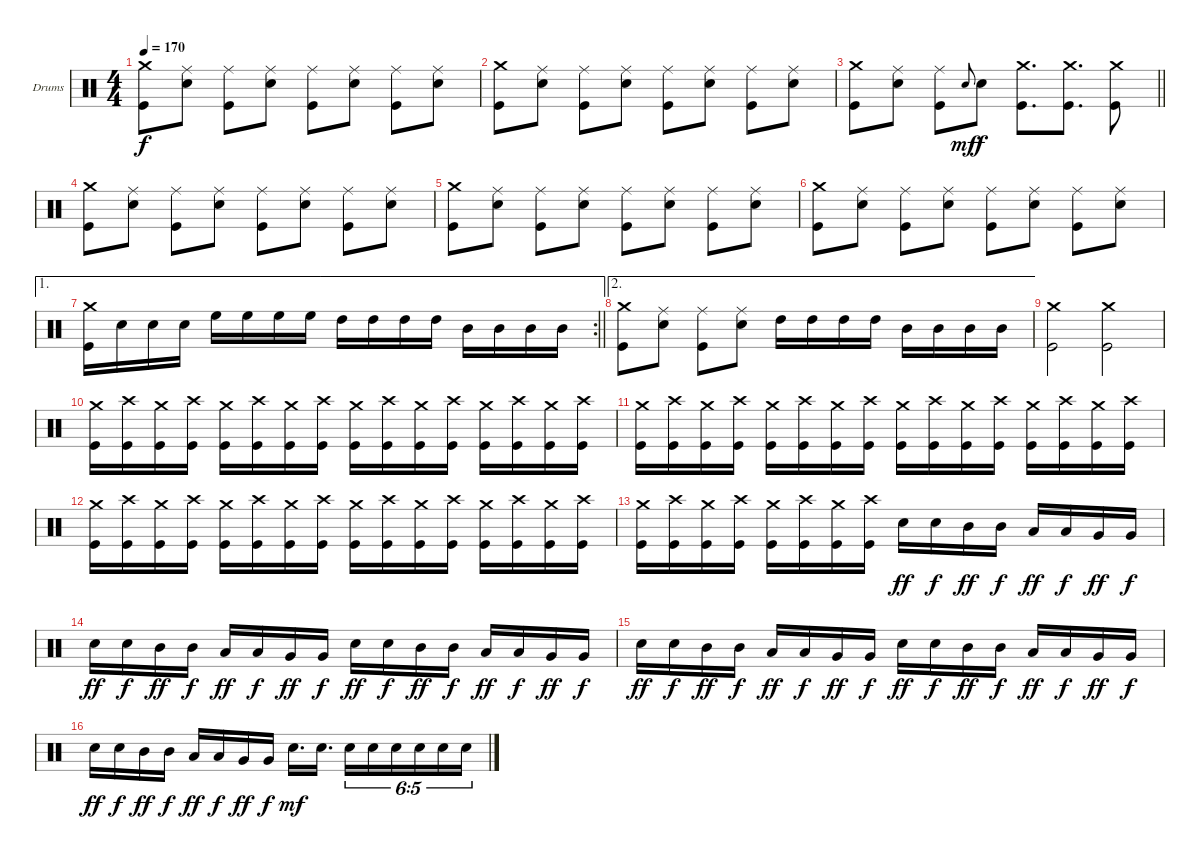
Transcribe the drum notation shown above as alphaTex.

\bracketExtendMode groupsimilarinstruments
\firstSystemTrackNameOrientation horizontal
\otherSystemsTrackNameOrientation horizontal
\track ("Drums" "Drums") {instrument percussion}
\staff {score}
\articulation defaults
\ts (4 4)
\tempo 170
\clef neutral
\ks c
("Crash medium (hit)" "Kick (hit)").8{dy f} ("Ride (middle)" "Snare (hit) 2").8 ("Ride (middle)" "Kick (hit)").8 ("Ride (middle)" "Snare (hit) 2").8 ("Ride (middle)" "Kick (hit)").8 ("Ride (middle)" "Snare (hit) 2").8 ("Ride (middle)" "Kick (hit)").8 ("Ride (middle)" "Snare (hit) 2").8 |
("Crash medium (hit)" "Kick (hit)").8 ("Ride (middle)" "Snare (hit) 2").8 ("Ride (middle)" "Kick (hit)").8 ("Ride (middle)" "Snare (hit) 2").8 ("Ride (middle)" "Kick (hit)").8 ("Ride (middle)" "Snare (hit) 2").8 ("Ride (middle)" "Kick (hit)").8 ("Ride (middle)" "Snare (hit) 2").8 |
\barLineRight lightlight
("Crash medium (hit)" "Kick (hit)").8 ("Ride (middle)" "Snare (hit) 2").8 ("Ride (middle)" "Kick (hit)").8 "Snare (hit) 2".8{gr onbeat dy mf} "Snare (hit) 2".8{dy f} ("Crash medium (hit)" "Kick (hit)").8{d} ("Crash medium (hit)" "Kick (hit)").8{d} ("Crash medium (hit)" "Kick (hit)").8 |
("Crash medium (hit)" "Kick (hit)").8 ("Ride (middle)" "Snare (hit) 2").8 ("Ride (middle)" "Kick (hit)").8 ("Ride (middle)" "Snare (hit) 2").8 ("Ride (middle)" "Kick (hit)").8 ("Ride (middle)" "Snare (hit) 2").8 ("Ride (middle)" "Kick (hit)").8 ("Ride (middle)" "Snare (hit) 2").8 |
("Crash medium (hit)" "Kick (hit)").8 ("Ride (middle)" "Snare (hit) 2").8 ("Ride (middle)" "Kick (hit)").8 ("Ride (middle)" "Snare (hit) 2").8 ("Ride (middle)" "Kick (hit)").8 ("Ride (middle)" "Snare (hit) 2").8 ("Ride (middle)" "Kick (hit)").8 ("Ride (middle)" "Snare (hit) 2").8 |
("Crash medium (hit)" "Kick (hit)").8 ("Ride (middle)" "Snare (hit) 2").8 ("Ride (middle)" "Kick (hit)").8 ("Ride (middle)" "Snare (hit) 2").8 ("Ride (middle)" "Kick (hit)").8 ("Ride (middle)" "Snare (hit) 2").8 ("Ride (middle)" "Kick (hit)").8 ("Ride (middle)" "Snare (hit) 2").8 |
\ae 1
\rc 2
\barLineRight lightlight
("Crash medium (hit)" "Kick (hit)").16 "Snare (hit) 2".16 "Snare (hit) 2".16 "Snare (hit) 2".16 "High Floor Tom (hit)".16 "High Floor Tom (hit)".16 "High Floor Tom (hit)".16 "High Floor Tom (hit)".16 "High Tom (hit)".16 "High Tom (hit)".16 "High Tom (hit)".16 "High Tom (hit)".16 "Mid Tom (hit)".16 "Mid Tom (hit)".16 "Mid Tom (hit)".16 "Mid Tom (hit)".16 |
\ae 2
("Crash medium (hit)" "Kick (hit)").8 ("Ride (middle)" "Snare (hit) 2").8 ("Ride (middle)" "Kick (hit)").8 ("Ride (middle)" "Snare (hit) 2").8 "High Tom (hit)".16 "High Tom (hit)".16 "High Tom (hit)".16 "High Tom (hit)".16 "Mid Tom (hit)".16 "Mid Tom (hit)".16 "Mid Tom (hit)".16 "Mid Tom (hit)".16 |
("Crash medium (hit)" "Kick (hit)").2 ("Crash medium (hit)" "Kick (hit)").2 |
("Kick (hit)" "Crash medium (hit)").16 ("Kick (hit)" "Crash high (hit)").16 ("Kick (hit)" "Crash medium (hit)").16 ("Kick (hit)" "Crash high (hit)").16 ("Kick (hit)" "Crash medium (hit)").16 ("Kick (hit)" "Crash high (hit)").16 ("Kick (hit)" "Crash medium (hit)").16 ("Kick (hit)" "Crash high (hit)").16 ("Kick (hit)" "Crash medium (hit)").16 ("Kick (hit)" "Crash high (hit)").16 ("Kick (hit)" "Crash medium (hit)").16 ("Kick (hit)" "Crash high (hit)").16 ("Kick (hit)" "Crash medium (hit)").16 ("Kick (hit)" "Crash high (hit)").16 ("Kick (hit)" "Crash medium (hit)").16 ("Kick (hit)" "Crash high (hit)").16 |
("Kick (hit)" "Crash medium (hit)").16 ("Kick (hit)" "Crash high (hit)").16 ("Kick (hit)" "Crash medium (hit)").16 ("Kick (hit)" "Crash high (hit)").16 ("Kick (hit)" "Crash medium (hit)").16 ("Kick (hit)" "Crash high (hit)").16 ("Kick (hit)" "Crash medium (hit)").16 ("Kick (hit)" "Crash high (hit)").16 ("Kick (hit)" "Crash medium (hit)").16 ("Kick (hit)" "Crash high (hit)").16 ("Kick (hit)" "Crash medium (hit)").16 ("Kick (hit)" "Crash high (hit)").16 ("Kick (hit)" "Crash medium (hit)").16 ("Kick (hit)" "Crash high (hit)").16 ("Kick (hit)" "Crash medium (hit)").16 ("Kick (hit)" "Crash high (hit)").16 |
("Kick (hit)" "Crash medium (hit)").16 ("Kick (hit)" "Crash high (hit)").16 ("Kick (hit)" "Crash medium (hit)").16 ("Kick (hit)" "Crash high (hit)").16 ("Kick (hit)" "Crash medium (hit)").16 ("Kick (hit)" "Crash high (hit)").16 ("Kick (hit)" "Crash medium (hit)").16 ("Kick (hit)" "Crash high (hit)").16 ("Kick (hit)" "Crash medium (hit)").16 ("Kick (hit)" "Crash high (hit)").16 ("Kick (hit)" "Crash medium (hit)").16 ("Kick (hit)" "Crash high (hit)").16 ("Kick (hit)" "Crash medium (hit)").16 ("Kick (hit)" "Crash high (hit)").16 ("Kick (hit)" "Crash medium (hit)").16 ("Kick (hit)" "Crash high (hit)").16 |
("Kick (hit)" "Crash medium (hit)").16 ("Kick (hit)" "Crash high (hit)").16 ("Kick (hit)" "Crash medium (hit)").16 ("Kick (hit)" "Crash high (hit)").16 ("Kick (hit)" "Crash medium (hit)").16 ("Kick (hit)" "Crash high (hit)").16 ("Kick (hit)" "Crash medium (hit)").16 ("Kick (hit)" "Crash high (hit)").16 "Snare (hit) 2".16{dy ff} "Snare (hit) 2".16{dy f} "Mid Tom (hit)".16{dy ff} "Mid Tom (hit)".16{dy f} "Low Tom (hit)".16{dy ff} "Low Tom (hit)".16{dy f} "Very Low Tom (hit)".16{dy ff} "Very Low Tom (hit)".16{dy f} |
"Snare (hit) 2".16{dy ff} "Snare (hit) 2".16{dy f} "Mid Tom (hit)".16{dy ff} "Mid Tom (hit)".16{dy f} "Low Tom (hit)".16{dy ff} "Low Tom (hit)".16{dy f} "Very Low Tom (hit)".16{dy ff} "Very Low Tom (hit)".16{dy f} "Snare (hit) 2".16{dy ff} "Snare (hit) 2".16{dy f} "Mid Tom (hit)".16{dy ff} "Mid Tom (hit)".16{dy f} "Low Tom (hit)".16{dy ff} "Low Tom (hit)".16{dy f} "Very Low Tom (hit)".16{dy ff} "Very Low Tom (hit)".16{dy f} |
"Snare (hit) 2".16{dy ff} "Snare (hit) 2".16{dy f} "Mid Tom (hit)".16{dy ff} "Mid Tom (hit)".16{dy f} "Low Tom (hit)".16{dy ff} "Low Tom (hit)".16{dy f} "Very Low Tom (hit)".16{dy ff} "Very Low Tom (hit)".16{dy f} "Snare (hit) 2".16{dy ff} "Snare (hit) 2".16{dy f} "Mid Tom (hit)".16{dy ff} "Mid Tom (hit)".16{dy f} "Low Tom (hit)".16{dy ff} "Low Tom (hit)".16{dy f} "Very Low Tom (hit)".16{dy ff} "Very Low Tom (hit)".16{dy f} |
"Snare (hit) 2".16{dy ff} "Snare (hit) 2".16{dy f} "Mid Tom (hit)".16{dy ff} "Mid Tom (hit)".16{dy f} "Low Tom (hit)".16{dy ff} "Low Tom (hit)".16{dy f} "Very Low Tom (hit)".16{dy ff} "Very Low Tom (hit)".16{dy f} "Snare (hit) 2".16{d dy mf} "Snare (hit) 2".16{d} "Snare (hit) 2".16{tu (6 5)} "Snare (hit) 2".16{tu (6 5)} "Snare (hit) 2".16{tu (6 5)} "Snare (hit) 2".16{tu (6 5)} "Snare (hit) 2".16{tu (6 5)} "Snare (hit) 2".16{tu (6 5)}
